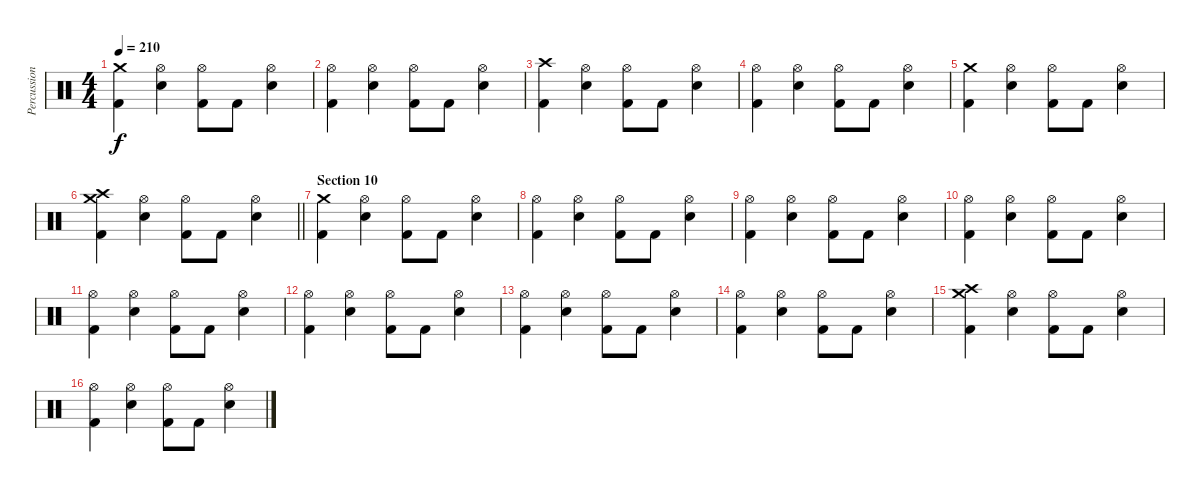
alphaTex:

\track ("Percussion" "Percussion") {instrument percussion}
\staff {score}
\articulation defaults
\ts (4 4)
\tempo 210
\clef neutral
\ks c
("Kick (hit) 2" "Crash medium (hit)").4{dy f} ("Electric Snare (hit)" "Hi-Hat (open)").4 ("Kick (hit) 2" "Hi-Hat (open)").8 "Kick (hit) 2".8 ("Electric Snare (hit)" "Hi-Hat (open)").4 |
("Kick (hit) 2" "Hi-Hat (open)").4 ("Electric Snare (hit)" "Hi-Hat (open)").4 ("Kick (hit) 2" "Hi-Hat (open)").8 "Kick (hit) 2".8 ("Electric Snare (hit)" "Hi-Hat (open)").4 |
("Kick (hit) 2" "Crash high (hit)").4 ("Electric Snare (hit)" "Hi-Hat (open)").4 ("Kick (hit) 2" "Hi-Hat (open)").8 "Kick (hit) 2".8 ("Electric Snare (hit)" "Hi-Hat (open)").4 |
("Kick (hit) 2" "Hi-Hat (open)").4 ("Electric Snare (hit)" "Hi-Hat (open)").4 ("Kick (hit) 2" "Hi-Hat (open)").8 "Kick (hit) 2".8 ("Electric Snare (hit)" "Hi-Hat (open)").4 |
("Kick (hit) 2" "Crash medium (hit)").4 ("Electric Snare (hit)" "Hi-Hat (open)").4 ("Kick (hit) 2" "Hi-Hat (open)").8 "Kick (hit) 2".8 ("Electric Snare (hit)" "Hi-Hat (open)").4 |
\barLineRight lightlight
("Kick (hit) 2" "Crash medium (hit)" "Crash high (hit)").4 ("Electric Snare (hit)" "Hi-Hat (open)").4 ("Kick (hit) 2" "Hi-Hat (open)").8 "Kick (hit) 2".8 ("Electric Snare (hit)" "Hi-Hat (open)").4 |
\section ("" "Section 10")
("Kick (hit) 2" "Crash medium (hit)").4 ("Electric Snare (hit)" "Hi-Hat (open)").4 ("Kick (hit) 2" "Hi-Hat (open)").8 "Kick (hit) 2".8 ("Electric Snare (hit)" "Hi-Hat (open)").4 |
("Kick (hit) 2" "Hi-Hat (open)").4 ("Electric Snare (hit)" "Hi-Hat (open)").4 ("Kick (hit) 2" "Hi-Hat (open)").8 "Kick (hit) 2".8 ("Electric Snare (hit)" "Hi-Hat (open)").4 |
("Kick (hit) 2" "Hi-Hat (open)").4 ("Electric Snare (hit)" "Hi-Hat (open)").4 ("Kick (hit) 2" "Hi-Hat (open)").8 "Kick (hit) 2".8 ("Electric Snare (hit)" "Hi-Hat (open)").4 |
("Kick (hit) 2" "Hi-Hat (open)").4 ("Electric Snare (hit)" "Hi-Hat (open)").4 ("Kick (hit) 2" "Hi-Hat (open)").8 "Kick (hit) 2".8 ("Electric Snare (hit)" "Hi-Hat (open)").4 |
("Kick (hit) 2" "Hi-Hat (open)").4 ("Electric Snare (hit)" "Hi-Hat (open)").4 ("Kick (hit) 2" "Hi-Hat (open)").8 "Kick (hit) 2".8 ("Electric Snare (hit)" "Hi-Hat (open)").4 |
("Kick (hit) 2" "Hi-Hat (open)").4 ("Electric Snare (hit)" "Hi-Hat (open)").4 ("Kick (hit) 2" "Hi-Hat (open)").8 "Kick (hit) 2".8 ("Electric Snare (hit)" "Hi-Hat (open)").4 |
("Kick (hit) 2" "Hi-Hat (open)").4 ("Electric Snare (hit)" "Hi-Hat (open)").4 ("Kick (hit) 2" "Hi-Hat (open)").8 "Kick (hit) 2".8 ("Electric Snare (hit)" "Hi-Hat (open)").4 |
("Kick (hit) 2" "Hi-Hat (open)").4 ("Electric Snare (hit)" "Hi-Hat (open)").4 ("Kick (hit) 2" "Hi-Hat (open)").8 "Kick (hit) 2".8 ("Electric Snare (hit)" "Hi-Hat (open)").4 |
("Kick (hit) 2" "Crash medium (hit)" "Crash high (hit)").4 ("Electric Snare (hit)" "Hi-Hat (open)").4 ("Kick (hit) 2" "Hi-Hat (open)").8 "Kick (hit) 2".8 ("Electric Snare (hit)" "Hi-Hat (open)").4 |
("Kick (hit) 2" "Hi-Hat (open)").4 ("Electric Snare (hit)" "Hi-Hat (open)").4 ("Kick (hit) 2" "Hi-Hat (open)").8 "Kick (hit) 2".8 ("Electric Snare (hit)" "Hi-Hat (open)").4
